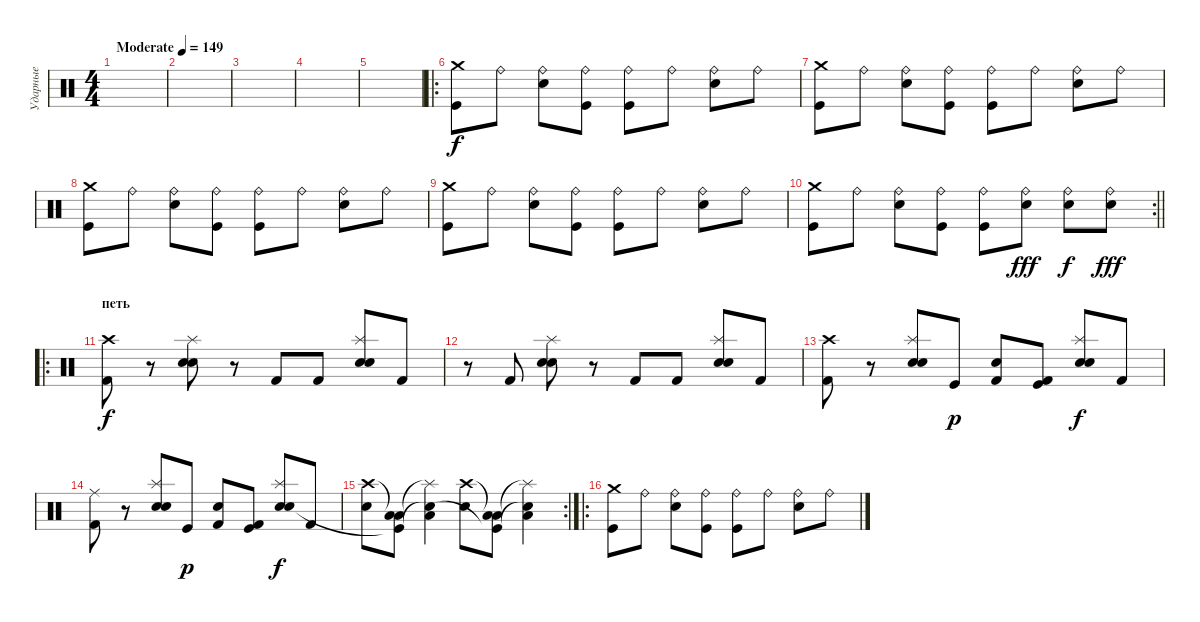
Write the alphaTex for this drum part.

\track ("Ударные" "Ударные") {instrument percussion}
\staff {score}
\articulation defaults
\ts (4 4)
\tempo (149 "Moderate")
\clef neutral
\ks c
|
|
|
|
|
\ro
("Crash medium (hit)" "Kick (hit)").8 "Ride (bell)".8 ("Ride (bell)" "Electric Snare (hit)").8 ("Ride (bell)" "Kick (hit)").8 ("Ride (bell)" "Kick (hit)").8 "Ride (bell)".8 ("Ride (bell)" "Electric Snare (hit)").8 "Ride (bell)".8 |
("Crash medium (hit)" "Kick (hit)").8 "Ride (bell)".8 ("Ride (bell)" "Electric Snare (hit)").8 ("Ride (bell)" "Kick (hit)").8 ("Ride (bell)" "Kick (hit)").8 "Ride (bell)".8 ("Ride (bell)" "Electric Snare (hit)").8 "Ride (bell)".8 |
("Crash medium (hit)" "Kick (hit)").8 "Ride (bell)".8 ("Ride (bell)" "Electric Snare (hit)").8 ("Ride (bell)" "Kick (hit)").8 ("Ride (bell)" "Kick (hit)").8 "Ride (bell)".8 ("Ride (bell)" "Electric Snare (hit)").8 "Ride (bell)".8 |
("Crash medium (hit)" "Kick (hit)").8 "Ride (bell)".8 ("Ride (bell)" "Electric Snare (hit)").8 ("Ride (bell)" "Kick (hit)").8 ("Ride (bell)" "Kick (hit)").8 "Ride (bell)".8 ("Ride (bell)" "Electric Snare (hit)").8 "Ride (bell)".8 |
\rc 2
\barLineRight lightlight
("Crash medium (hit)" "Kick (hit)").8 "Ride (bell)".8 ("Ride (bell)" "Electric Snare (hit)").8 ("Ride (bell)" "Kick (hit)").8 ("Ride (bell)" "Kick (hit)").8 ("Ride (bell)" "Electric Snare (hit)").8{dy fff} ("Ride (bell)" "Electric Snare (hit)").8{dy f} ("Ride (bell)" "Electric Snare (hit)").8{dy fff} |
\ro
\section ("" "петь")
("Crash high (hit)" "Kick (hit) 2").8{dy f} r.8 ("Splash (hit)" "Electric Snare (hit)" "Snare (hit) 2").8 r.8 "Kick (hit) 2".8 "Kick (hit) 2".8 ("Splash (hit)" "Electric Snare (hit)" "Snare (hit) 2").8 "Kick (hit) 2".8 |
r.8 "Kick (hit) 2".8 ("Splash (hit)" "Electric Snare (hit)" "Snare (hit) 2").8 r.8 "Kick (hit) 2".8 "Kick (hit) 2".8 ("Splash (hit)" "Electric Snare (hit)" "Snare (hit) 2").8 "Kick (hit) 2".8 |
("Crash high (hit)" "Kick (hit) 2").8 r.8 ("Splash (hit)" "Electric Snare (hit)" "Snare (hit) 2").8 "Kick (hit)".8{dy p} ("Snare (hit) 2" "Kick (hit) 2").8 ("Kick (hit)" "Kick (hit) 2").8 ("Splash (hit)" "Electric Snare (hit)" "Snare (hit) 2").8{dy f} "Kick (hit) 2".8 |
("Ride (middle)" "Kick (hit) 2").8 r.8 ("Splash (hit)" "Electric Snare (hit)" "Snare (hit) 2").8 "Kick (hit)".8{dy p} ("Snare (hit) 2" "Kick (hit) 2").8 ("Kick (hit)" "Kick (hit) 2").8 ("Splash (hit)" "Electric Snare (hit)" "Snare (hit) 2").8{dy f} "Kick (hit) 2".8 |
\rc 2
("Crash high (hit)" "Snare (hit) 2").8 ("Low Tom (hit)"{t} "Low Tom (hit)" "Kick (hit)"{t}).8 ("Splash (hit)"{t} "Low Tom (hit)" "Snare (hit) 2"{t}).4 ("Crash high (hit)" "Snare (hit) 2").8 ("Low Tom (hit)"{t} "Low Tom (hit)" "Kick (hit)"{t}).8 ("Splash (hit)"{t} "Low Tom (hit)" "Snare (hit) 2"{t}).4 |
\ro
("Crash medium (hit)" "Kick (hit)").8 "Ride (bell)".8 ("Ride (bell)" "Electric Snare (hit)").8 ("Ride (bell)" "Kick (hit)").8 ("Ride (bell)" "Kick (hit)").8 "Ride (bell)".8 ("Ride (bell)" "Electric Snare (hit)").8 "Ride (bell)".8
